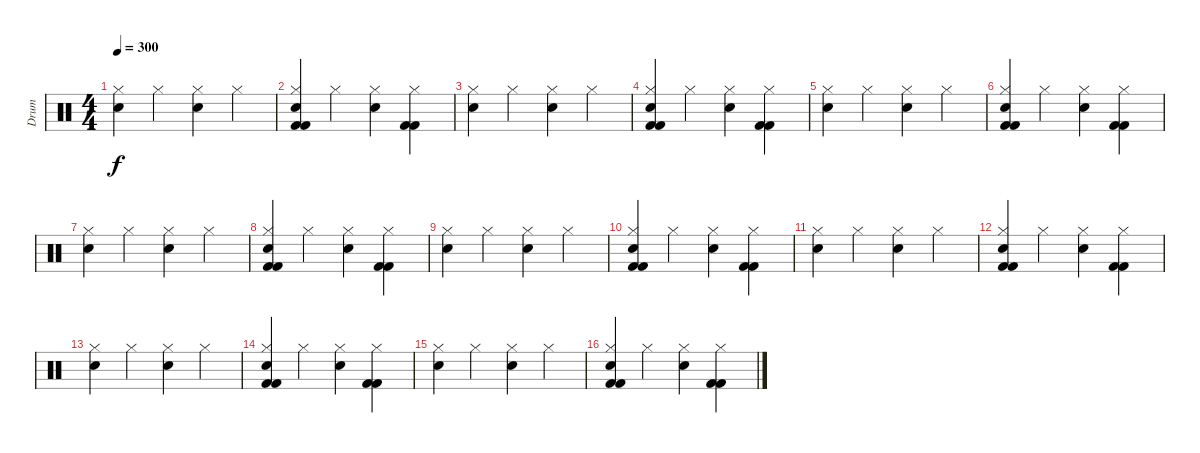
\track ("Drum" "Drum") {instrument percussion}
\staff {score}
\articulation defaults
\ts (4 4)
\tempo 300
\clef neutral
\ks c
("Electric Snare (hit)" "Hi-Hat (closed)").4{dy f} "Hi-Hat (closed)".4 ("Electric Snare (hit)" "Hi-Hat (closed)").4 "Hi-Hat (closed)".4 |
("Electric Snare (hit)" "Hi-Hat (closed)" "Kick (hit) 2" "Kick (hit) 2").4 "Hi-Hat (closed)".4 ("Electric Snare (hit)" "Hi-Hat (closed)").4 ("Hi-Hat (closed)" "Kick (hit) 2" "Kick (hit) 2").4 |
("Electric Snare (hit)" "Hi-Hat (closed)").4 "Hi-Hat (closed)".4 ("Electric Snare (hit)" "Hi-Hat (closed)").4 "Hi-Hat (closed)".4 |
("Electric Snare (hit)" "Hi-Hat (closed)" "Kick (hit) 2" "Kick (hit) 2").4 "Hi-Hat (closed)".4 ("Electric Snare (hit)" "Hi-Hat (closed)").4 ("Hi-Hat (closed)" "Kick (hit) 2" "Kick (hit) 2").4 |
("Electric Snare (hit)" "Hi-Hat (closed)").4 "Hi-Hat (closed)".4 ("Electric Snare (hit)" "Hi-Hat (closed)").4 "Hi-Hat (closed)".4 |
("Electric Snare (hit)" "Hi-Hat (closed)" "Kick (hit) 2" "Kick (hit) 2").4 "Hi-Hat (closed)".4 ("Electric Snare (hit)" "Hi-Hat (closed)").4 ("Hi-Hat (closed)" "Kick (hit) 2" "Kick (hit) 2").4 |
("Electric Snare (hit)" "Hi-Hat (closed)").4 "Hi-Hat (closed)".4 ("Electric Snare (hit)" "Hi-Hat (closed)").4 "Hi-Hat (closed)".4 |
("Electric Snare (hit)" "Hi-Hat (closed)" "Kick (hit) 2" "Kick (hit) 2").4 "Hi-Hat (closed)".4 ("Electric Snare (hit)" "Hi-Hat (closed)").4 ("Hi-Hat (closed)" "Kick (hit) 2" "Kick (hit) 2").4 |
("Electric Snare (hit)" "Hi-Hat (closed)").4 "Hi-Hat (closed)".4 ("Electric Snare (hit)" "Hi-Hat (closed)").4 "Hi-Hat (closed)".4 |
("Electric Snare (hit)" "Hi-Hat (closed)" "Kick (hit) 2" "Kick (hit) 2").4 "Hi-Hat (closed)".4 ("Electric Snare (hit)" "Hi-Hat (closed)").4 ("Hi-Hat (closed)" "Kick (hit) 2" "Kick (hit) 2").4 |
("Electric Snare (hit)" "Hi-Hat (closed)").4 "Hi-Hat (closed)".4 ("Electric Snare (hit)" "Hi-Hat (closed)").4 "Hi-Hat (closed)".4 |
("Electric Snare (hit)" "Hi-Hat (closed)" "Kick (hit) 2" "Kick (hit) 2").4 "Hi-Hat (closed)".4 ("Electric Snare (hit)" "Hi-Hat (closed)").4 ("Hi-Hat (closed)" "Kick (hit) 2" "Kick (hit) 2").4 |
("Electric Snare (hit)" "Hi-Hat (closed)").4 "Hi-Hat (closed)".4 ("Electric Snare (hit)" "Hi-Hat (closed)").4 "Hi-Hat (closed)".4 |
("Electric Snare (hit)" "Hi-Hat (closed)" "Kick (hit) 2" "Kick (hit) 2").4 "Hi-Hat (closed)".4 ("Electric Snare (hit)" "Hi-Hat (closed)").4 ("Hi-Hat (closed)" "Kick (hit) 2" "Kick (hit) 2").4 |
("Electric Snare (hit)" "Hi-Hat (closed)").4 "Hi-Hat (closed)".4 ("Electric Snare (hit)" "Hi-Hat (closed)").4 "Hi-Hat (closed)".4 |
("Electric Snare (hit)" "Hi-Hat (closed)" "Kick (hit) 2" "Kick (hit) 2").4 "Hi-Hat (closed)".4 ("Electric Snare (hit)" "Hi-Hat (closed)").4 ("Hi-Hat (closed)" "Kick (hit) 2" "Kick (hit) 2").4
